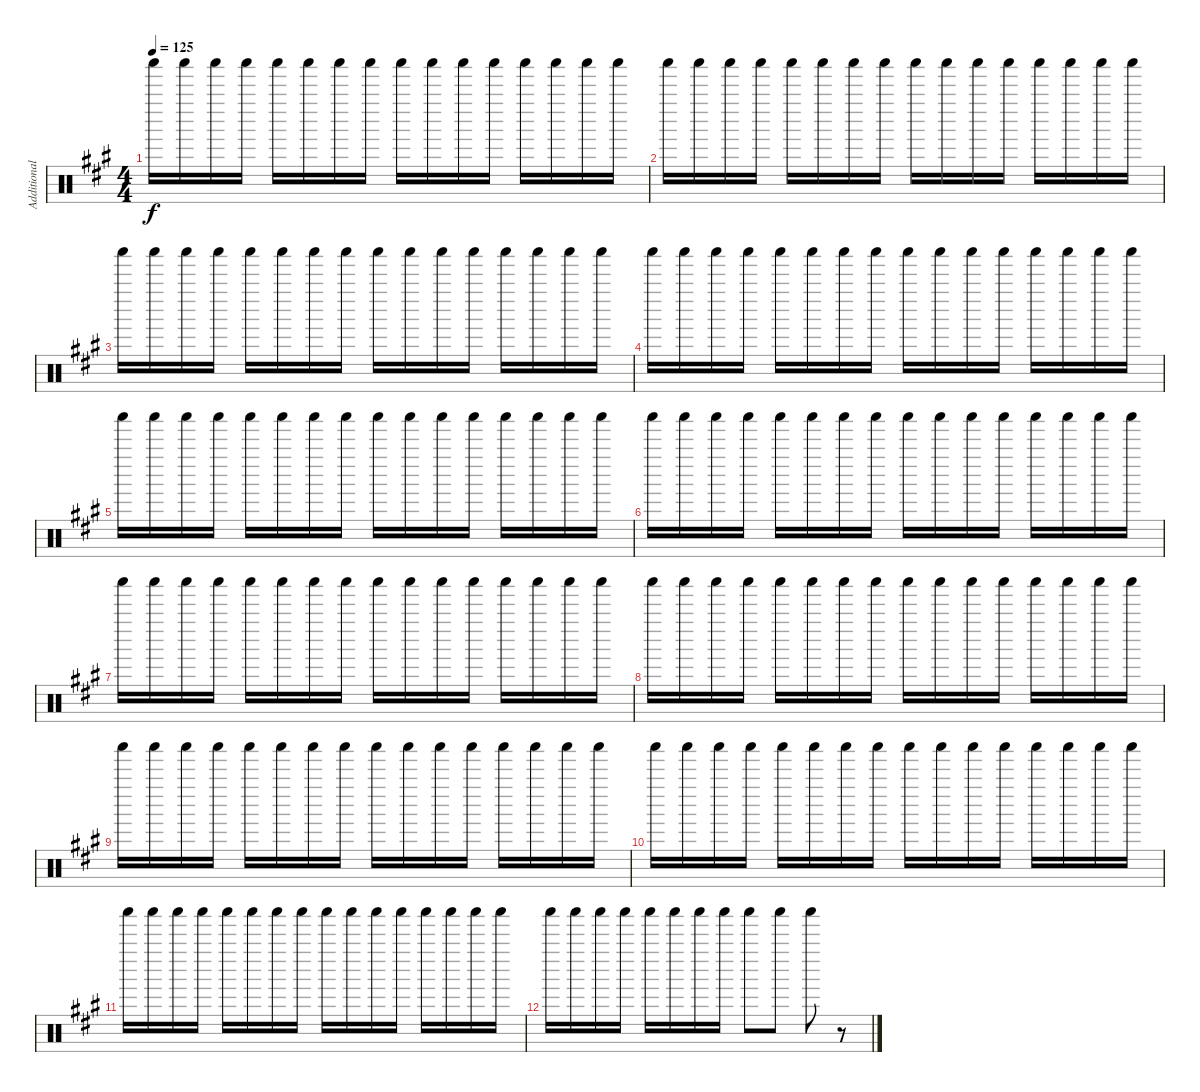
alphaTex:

\track ("Additional Percussion I" "Additional") {instrument percussion}
\staff {score}
\articulation defaults
\ts (4 4)
\tempo 125
\clef neutral
\ks a "Shaker (hit)".16{dy f} "Shaker (hit)".16 "Shaker (hit)".16 "Shaker (hit)".16 "Shaker (hit)".16 "Shaker (hit)".16 "Shaker (hit)".16 "Shaker (hit)".16 "Shaker (hit)".16 "Shaker (hit)".16 "Shaker (hit)".16 "Shaker (hit)".16 "Shaker (hit)".16 "Shaker (hit)".16 "Shaker (hit)".16 "Shaker (hit)".16
|
"Shaker (hit)".16 "Shaker (hit)".16 "Shaker (hit)".16 "Shaker (hit)".16 "Shaker (hit)".16 "Shaker (hit)".16 "Shaker (hit)".16 "Shaker (hit)".16 "Shaker (hit)".16 "Shaker (hit)".16 "Shaker (hit)".16 "Shaker (hit)".16 "Shaker (hit)".16 "Shaker (hit)".16 "Shaker (hit)".16 "Shaker (hit)".16 |
"Shaker (hit)".16 "Shaker (hit)".16 "Shaker (hit)".16 "Shaker (hit)".16 "Shaker (hit)".16 "Shaker (hit)".16 "Shaker (hit)".16 "Shaker (hit)".16 "Shaker (hit)".16 "Shaker (hit)".16 "Shaker (hit)".16 "Shaker (hit)".16 "Shaker (hit)".16 "Shaker (hit)".16 "Shaker (hit)".16 "Shaker (hit)".16 |
"Shaker (hit)".16 "Shaker (hit)".16 "Shaker (hit)".16 "Shaker (hit)".16 "Shaker (hit)".16 "Shaker (hit)".16 "Shaker (hit)".16 "Shaker (hit)".16 "Shaker (hit)".16 "Shaker (hit)".16 "Shaker (hit)".16 "Shaker (hit)".16 "Shaker (hit)".16 "Shaker (hit)".16 "Shaker (hit)".16 "Shaker (hit)".16 |
"Shaker (hit)".16 "Shaker (hit)".16 "Shaker (hit)".16 "Shaker (hit)".16 "Shaker (hit)".16 "Shaker (hit)".16 "Shaker (hit)".16 "Shaker (hit)".16 "Shaker (hit)".16 "Shaker (hit)".16 "Shaker (hit)".16 "Shaker (hit)".16 "Shaker (hit)".16 "Shaker (hit)".16 "Shaker (hit)".16 "Shaker (hit)".16 |
"Shaker (hit)".16 "Shaker (hit)".16 "Shaker (hit)".16 "Shaker (hit)".16 "Shaker (hit)".16 "Shaker (hit)".16 "Shaker (hit)".16 "Shaker (hit)".16 "Shaker (hit)".16 "Shaker (hit)".16 "Shaker (hit)".16 "Shaker (hit)".16 "Shaker (hit)".16 "Shaker (hit)".16 "Shaker (hit)".16 "Shaker (hit)".16 |
"Shaker (hit)".16 "Shaker (hit)".16 "Shaker (hit)".16 "Shaker (hit)".16 "Shaker (hit)".16 "Shaker (hit)".16 "Shaker (hit)".16 "Shaker (hit)".16 "Shaker (hit)".16 "Shaker (hit)".16 "Shaker (hit)".16 "Shaker (hit)".16 "Shaker (hit)".16 "Shaker (hit)".16 "Shaker (hit)".16 "Shaker (hit)".16 |
"Shaker (hit)".16 "Shaker (hit)".16 "Shaker (hit)".16 "Shaker (hit)".16 "Shaker (hit)".16 "Shaker (hit)".16 "Shaker (hit)".16 "Shaker (hit)".16 "Shaker (hit)".16 "Shaker (hit)".16 "Shaker (hit)".16 "Shaker (hit)".16 "Shaker (hit)".16 "Shaker (hit)".16 "Shaker (hit)".16 "Shaker (hit)".16 |
"Shaker (hit)".16 "Shaker (hit)".16 "Shaker (hit)".16 "Shaker (hit)".16 "Shaker (hit)".16 "Shaker (hit)".16 "Shaker (hit)".16 "Shaker (hit)".16 "Shaker (hit)".16 "Shaker (hit)".16 "Shaker (hit)".16 "Shaker (hit)".16 "Shaker (hit)".16 "Shaker (hit)".16 "Shaker (hit)".16 "Shaker (hit)".16 |
"Shaker (hit)".16 "Shaker (hit)".16 "Shaker (hit)".16 "Shaker (hit)".16 "Shaker (hit)".16 "Shaker (hit)".16 "Shaker (hit)".16 "Shaker (hit)".16 "Shaker (hit)".16 "Shaker (hit)".16 "Shaker (hit)".16 "Shaker (hit)".16 "Shaker (hit)".16 "Shaker (hit)".16 "Shaker (hit)".16 "Shaker (hit)".16 |
"Shaker (hit)".16 "Shaker (hit)".16 "Shaker (hit)".16 "Shaker (hit)".16 "Shaker (hit)".16 "Shaker (hit)".16 "Shaker (hit)".16 "Shaker (hit)".16 "Shaker (hit)".16 "Shaker (hit)".16 "Shaker (hit)".16 "Shaker (hit)".16 "Shaker (hit)".16 "Shaker (hit)".16 "Shaker (hit)".16 "Shaker (hit)".16 |
"Shaker (hit)".16 "Shaker (hit)".16 "Shaker (hit)".16 "Shaker (hit)".16 "Shaker (hit)".16 "Shaker (hit)".16 "Shaker (hit)".16 "Shaker (hit)".16 "Shaker (hit)".8 "Shaker (hit)".8 "Shaker (hit)".8 r.8
